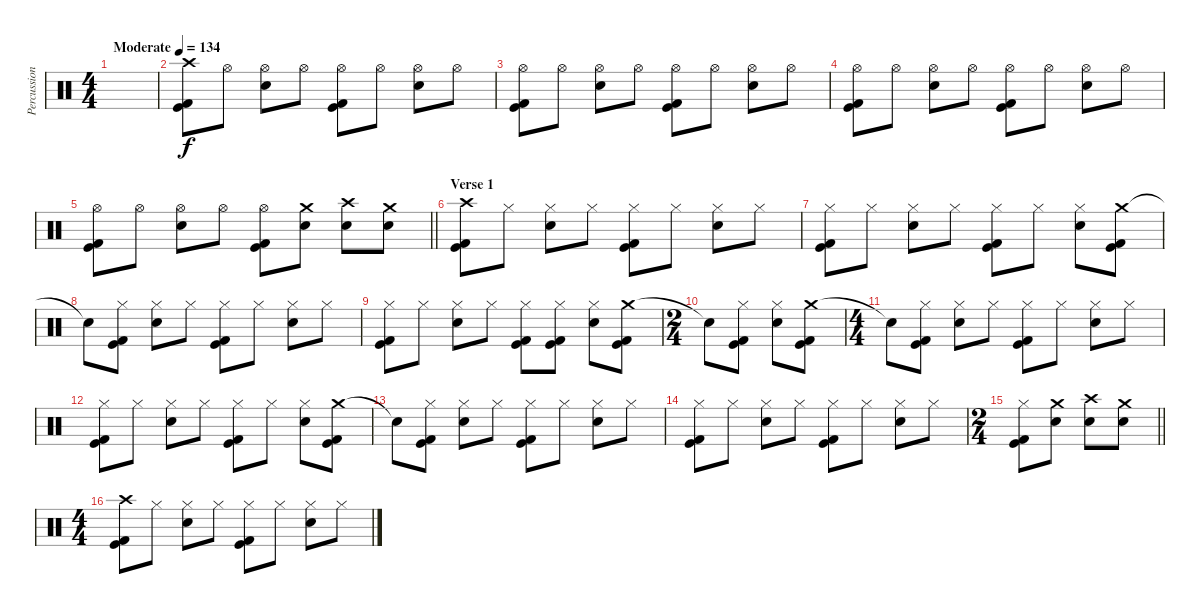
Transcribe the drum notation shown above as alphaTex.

\track ("Percussion" "Percussion") {instrument percussion}
\staff {score}
\articulation defaults
\ts (4 4)
\tempo (134 "Moderate")
\clef neutral
\ks c
|
("Crash high (hit)" "Kick (hit)" "Kick (hit) 2").8 "Hi-Hat (open)".8 ("Hi-Hat (open)" "Electric Snare (hit)").8 "Hi-Hat (open)".8 ("Hi-Hat (open)" "Kick (hit)" "Kick (hit) 2").8 "Hi-Hat (open)".8 ("Hi-Hat (open)" "Electric Snare (hit)").8 "Hi-Hat (open)".8 |
("Hi-Hat (open)" "Kick (hit)" "Kick (hit) 2").8 "Hi-Hat (open)".8 ("Hi-Hat (open)" "Electric Snare (hit)").8 "Hi-Hat (open)".8 ("Hi-Hat (open)" "Kick (hit)" "Kick (hit) 2").8 "Hi-Hat (open)".8 ("Hi-Hat (open)" "Electric Snare (hit)").8 "Hi-Hat (open)".8 |
("Hi-Hat (open)" "Kick (hit)" "Kick (hit) 2").8 "Hi-Hat (open)".8 ("Hi-Hat (open)" "Electric Snare (hit)").8 "Hi-Hat (open)".8 ("Hi-Hat (open)" "Kick (hit)" "Kick (hit) 2").8 "Hi-Hat (open)".8 ("Hi-Hat (open)" "Electric Snare (hit)").8 "Hi-Hat (open)".8 |
\barLineRight lightlight
("Hi-Hat (open)" "Kick (hit)" "Kick (hit) 2").8 "Hi-Hat (open)".8 ("Hi-Hat (open)" "Electric Snare (hit)").8 "Hi-Hat (open)".8 ("Hi-Hat (open)" "Kick (hit)" "Kick (hit) 2").8 ("Crash medium (hit)" "Electric Snare (hit)").8 ("Crash high (hit)" "Electric Snare (hit)").8 ("Crash medium (hit)" "Electric Snare (hit)").8 |
\section ("" "Verse 1")
("Crash high (hit)" "Kick (hit)" "Kick (hit) 2").8 "Hi-Hat (closed)".8 ("Hi-Hat (closed)" "Electric Snare (hit)").8 "Hi-Hat (closed)".8 ("Hi-Hat (closed)" "Kick (hit)" "Kick (hit) 2").8 "Hi-Hat (closed)".8 ("Hi-Hat (closed)" "Electric Snare (hit)").8 "Hi-Hat (closed)".8 |
("Hi-Hat (closed)" "Kick (hit)" "Kick (hit) 2").8 "Hi-Hat (closed)".8 ("Hi-Hat (closed)" "Electric Snare (hit)").8 "Hi-Hat (closed)".8 ("Hi-Hat (closed)" "Kick (hit)" "Kick (hit) 2").8 "Hi-Hat (closed)".8 ("Hi-Hat (closed)" "Electric Snare (hit)").8 ("Crash medium (hit)" "Kick (hit)" "Kick (hit) 2").8 |
"Snare (hit)"{t}.8 ("Hi-Hat (closed)" "Kick (hit)" "Kick (hit) 2").8 ("Hi-Hat (closed)" "Electric Snare (hit)").8 "Hi-Hat (closed)".8 ("Hi-Hat (closed)" "Kick (hit)" "Kick (hit) 2").8 "Hi-Hat (closed)".8 ("Hi-Hat (closed)" "Electric Snare (hit)").8 "Hi-Hat (closed)".8 |
("Hi-Hat (closed)" "Kick (hit)" "Kick (hit) 2").8 "Hi-Hat (closed)".8 ("Hi-Hat (closed)" "Electric Snare (hit)").8 "Hi-Hat (closed)".8 ("Hi-Hat (closed)" "Kick (hit)" "Kick (hit) 2").8 ("Hi-Hat (closed)" "Kick (hit)" "Kick (hit) 2").8 ("Hi-Hat (closed)" "Electric Snare (hit)").8 ("Crash medium (hit)" "Kick (hit)" "Kick (hit) 2").8 |
\ts (2 4)
"Snare (hit)"{t}.8 ("Hi-Hat (closed)" "Kick (hit)" "Kick (hit) 2").8 ("Hi-Hat (closed)" "Electric Snare (hit)").8 ("Crash medium (hit)" "Kick (hit)" "Kick (hit) 2").8 |
\ts (4 4)
"Snare (hit)"{t}.8 ("Hi-Hat (closed)" "Kick (hit)" "Kick (hit) 2").8 ("Hi-Hat (closed)" "Electric Snare (hit)").8 "Hi-Hat (closed)".8 ("Hi-Hat (closed)" "Kick (hit)" "Kick (hit) 2").8 "Hi-Hat (closed)".8 ("Hi-Hat (closed)" "Electric Snare (hit)").8 "Hi-Hat (closed)".8 |
("Hi-Hat (closed)" "Kick (hit)" "Kick (hit) 2").8 "Hi-Hat (closed)".8 ("Hi-Hat (closed)" "Electric Snare (hit)").8 "Hi-Hat (closed)".8 ("Hi-Hat (closed)" "Kick (hit)" "Kick (hit) 2").8 "Hi-Hat (closed)".8 ("Hi-Hat (closed)" "Electric Snare (hit)").8 ("Crash medium (hit)" "Kick (hit)" "Kick (hit) 2").8 |
"Snare (hit)"{t}.8 ("Hi-Hat (closed)" "Kick (hit)" "Kick (hit) 2").8 ("Hi-Hat (closed)" "Electric Snare (hit)").8 "Hi-Hat (closed)".8 ("Hi-Hat (closed)" "Kick (hit)" "Kick (hit) 2").8 "Hi-Hat (closed)".8 ("Hi-Hat (closed)" "Electric Snare (hit)").8 "Hi-Hat (closed)".8 |
("Hi-Hat (closed)" "Kick (hit)" "Kick (hit) 2").8 "Hi-Hat (closed)".8 ("Hi-Hat (closed)" "Electric Snare (hit)").8 "Hi-Hat (closed)".8 ("Hi-Hat (closed)" "Kick (hit)" "Kick (hit) 2").8 "Hi-Hat (closed)".8 ("Hi-Hat (closed)" "Electric Snare (hit)").8 "Hi-Hat (closed)".8 |
\ts (2 4)
\barLineRight lightlight
("Hi-Hat (closed)" "Kick (hit)" "Kick (hit) 2").8 ("Crash medium (hit)" "Electric Snare (hit)").8 ("Crash high (hit)" "Electric Snare (hit)").8 ("Crash medium (hit)" "Electric Snare (hit)").8 |
\ts (4 4)
\section ("" "")
("Crash high (hit)" "Kick (hit)" "Kick (hit) 2").8 "Hi-Hat (closed)".8 ("Hi-Hat (closed)" "Electric Snare (hit)").8 "Hi-Hat (closed)".8 ("Hi-Hat (closed)" "Kick (hit)" "Kick (hit) 2").8 "Hi-Hat (closed)".8 ("Hi-Hat (closed)" "Electric Snare (hit)").8 "Hi-Hat (closed)".8
